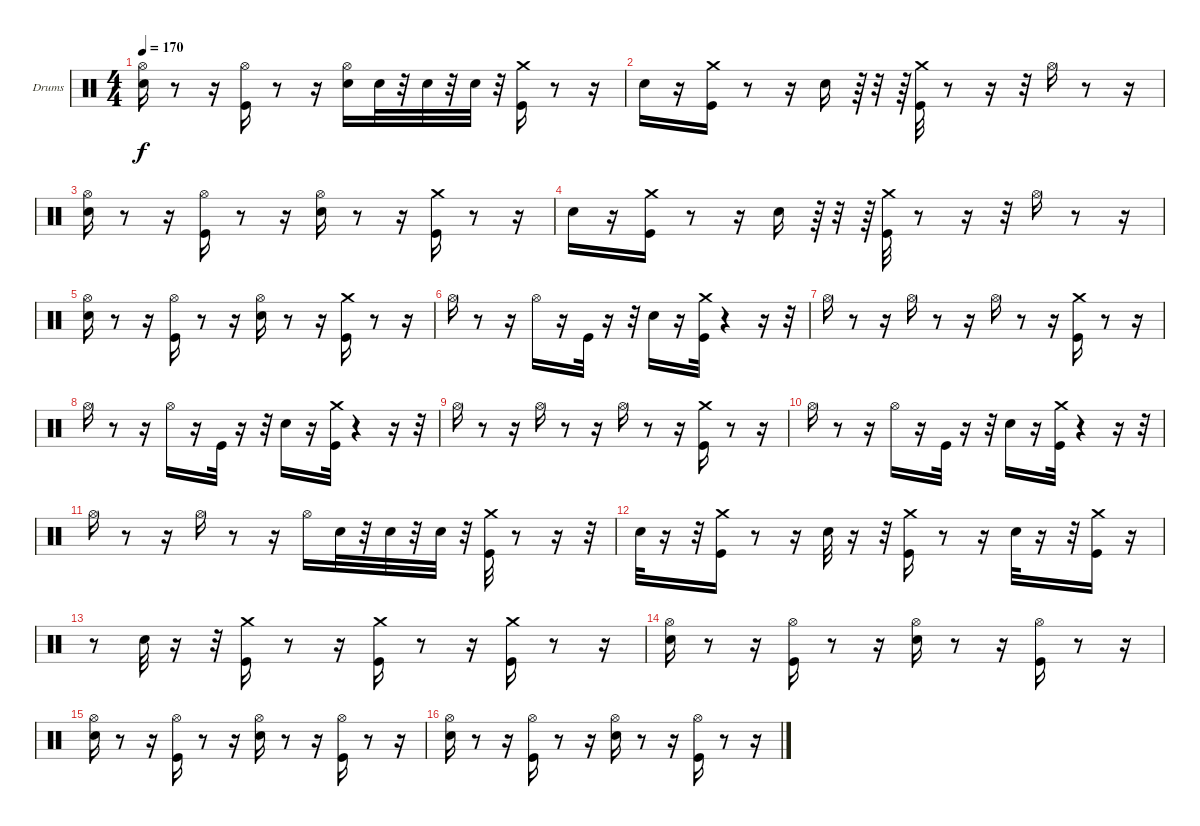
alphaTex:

\bracketExtendMode groupsimilarinstruments
\firstSystemTrackNameOrientation horizontal
\otherSystemsTrackNameOrientation horizontal
\track ("Thomas" "Drums") {instrument percussion}
\staff {score}
\articulation defaults
\ts (4 4)
\tempo 170
\clef neutral
\ks c
("Snare (hit) 2" "Hi-Hat (open)").16{dy f} r.8 r.16 ("Kick (hit)" "Hi-Hat (open)").16 r.8 r.16 ("Snare (hit) 2" "Hi-Hat (open)").16 "Snare (hit) 2".32 r.32 "Snare (hit) 2".32 r.32 "Snare (hit) 2".32 r.32 ("Crash medium (hit)" "Kick (hit)").16 r.8 r.16 |
"Snare (hit) 2".16 r.16 ("Kick (hit)" "Crash medium (hit)").16 r.8 r.16 "Snare (hit) 2".16 r.64 r.32 r.64 ("Kick (hit)" "Crash medium (hit)").32 r.8 r.16 r.32 "Hi-Hat (open)".16 r.8 r.16 |
("Hi-Hat (open)" "Snare (hit) 2").16 r.8 r.16 ("Hi-Hat (open)" "Kick (hit)").16 r.8 r.16 ("Hi-Hat (open)" "Snare (hit) 2").16 r.8 r.16 ("Kick (hit)" "Crash medium (hit)").16 r.8 r.16 |
"Snare (hit) 2".16 r.16 ("Kick (hit)" "Crash medium (hit)").16 r.8 r.16 "Snare (hit) 2".16 r.64 r.32 r.64 ("Kick (hit)" "Crash medium (hit)").32 r.8 r.16 r.32 "Hi-Hat (open)".16 r.8 r.16 |
("Hi-Hat (open)" "Snare (hit) 2").16 r.8 r.16 ("Hi-Hat (open)" "Kick (hit)").16 r.8 r.16 ("Hi-Hat (open)" "Snare (hit) 2").16 r.8 r.16 ("Kick (hit)" "Crash medium (hit)").16 r.8 r.16 |
"Hi-Hat (open)".16 r.8 r.16 "Hi-Hat (open)".16 r.16 "Kick (hit)".32 r.16 r.32 "Snare (hit) 2".16 r.16 ("Kick (hit)" "Crash medium (hit)").32 r.4 r.16 r.32 |
"Hi-Hat (open)".16 r.8 r.16 "Hi-Hat (open)".16 r.8 r.16 "Hi-Hat (open)".16 r.8 r.16 ("Kick (hit)" "Crash medium (hit)").16 r.8 r.16 |
"Hi-Hat (open)".16 r.8 r.16 "Hi-Hat (open)".16 r.16 "Kick (hit)".32 r.16 r.32 "Snare (hit) 2".16 r.16 ("Kick (hit)" "Crash medium (hit)").32 r.4 r.16 r.32 |
"Hi-Hat (open)".16 r.8 r.16 "Hi-Hat (open)".16 r.8 r.16 "Hi-Hat (open)".16 r.8 r.16 ("Kick (hit)" "Crash medium (hit)").16 r.8 r.16 |
"Hi-Hat (open)".16 r.8 r.16 "Hi-Hat (open)".16 r.16 "Kick (hit)".32 r.16 r.32 "Snare (hit) 2".16 r.16 ("Kick (hit)" "Crash medium (hit)").32 r.4 r.16 r.32 |
"Hi-Hat (open)".16 r.8 r.16 "Hi-Hat (open)".16 r.8 r.16 "Hi-Hat (open)".16 "Snare (hit) 2".32 r.32 "Snare (hit) 2".32 r.32 "Snare (hit) 2".32 r.32 ("Kick (hit)" "Crash medium (hit)").32 r.8 r.16 r.32 |
"Snare (hit) 2".32 r.16 r.32 ("Kick (hit)" "Crash medium (hit)").16 r.8 r.16 "Snare (hit) 2".32 r.16 r.32 ("Kick (hit)" "Crash medium (hit)").16 r.8 r.16 "Snare (hit) 2".32 r.16 r.32 ("Kick (hit)" "Crash medium (hit)").16 r.16 |
r.8 "Snare (hit) 2".32 r.16 r.32 ("Kick (hit)" "Crash medium (hit)").16 r.8 r.16 ("Kick (hit)" "Crash medium (hit)").16 r.8 r.16 ("Kick (hit)" "Crash medium (hit)").16 r.8 r.16 |
("Snare (hit) 2" "Hi-Hat (open)").16 r.8 r.16 ("Kick (hit)" "Hi-Hat (open)").16 r.8 r.16 ("Snare (hit) 2" "Hi-Hat (open)").16 r.8 r.16 ("Kick (hit)" "Hi-Hat (open)").16 r.8 r.16 |
("Snare (hit) 2" "Hi-Hat (open)").16 r.8 r.16 ("Kick (hit)" "Hi-Hat (open)").16 r.8 r.16 ("Snare (hit) 2" "Hi-Hat (open)").16 r.8 r.16 ("Kick (hit)" "Hi-Hat (open)").16 r.8 r.16 |
("Snare (hit) 2" "Hi-Hat (open)").16 r.8 r.16 ("Kick (hit)" "Hi-Hat (open)").16 r.8 r.16 ("Snare (hit) 2" "Hi-Hat (open)").16 r.8 r.16 ("Kick (hit)" "Hi-Hat (open)").16 r.8 r.16
